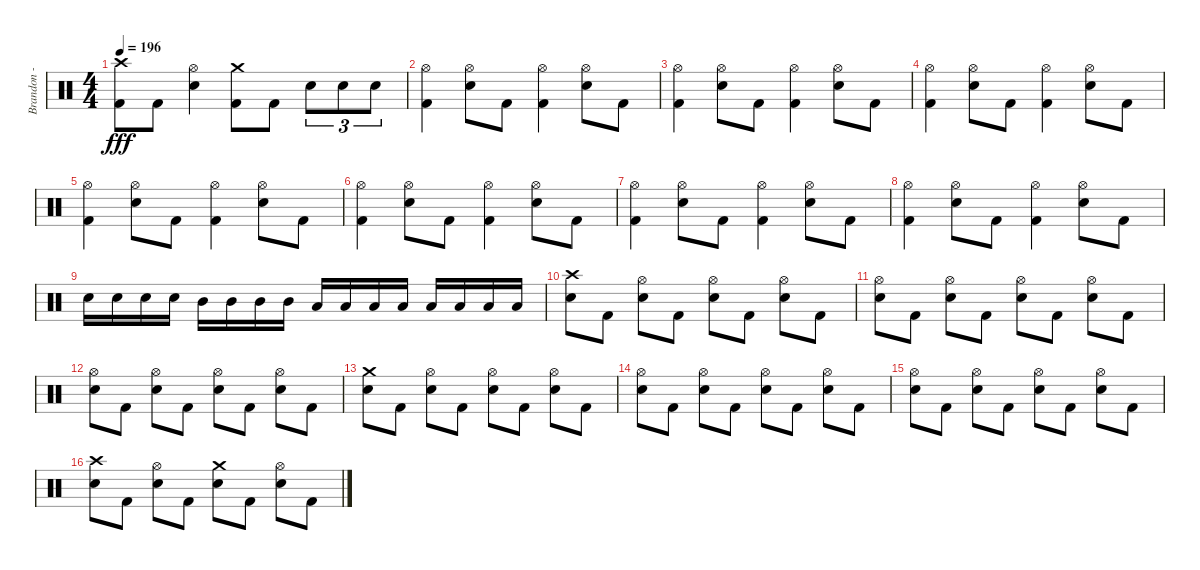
\track ("Brandon - Drums" "Brandon - ") {instrument percussion}
\staff {score}
\articulation defaults
\ts (4 4)
\tempo 196
\clef neutral
\ks c
("Crash high (hit)" "Kick (hit) 2").8{dy fff} "Kick (hit) 2".8 ("Hi-Hat (open)" "Snare (hit) 2").4 ("Crash medium (hit)" "Kick (hit) 2").8 "Kick (hit) 2".8 "Snare (hit) 2".8{tu (3 2)} "Snare (hit) 2".8{tu (3 2)} "Snare (hit) 2".8{tu (3 2)} |
("Hi-Hat (open)" "Kick (hit) 2").4 ("Hi-Hat (open)" "Snare (hit) 2").8 "Kick (hit) 2".8 ("Hi-Hat (open)" "Kick (hit) 2").4 ("Hi-Hat (open)" "Snare (hit) 2").8 "Kick (hit) 2".8 |
("Hi-Hat (open)" "Kick (hit) 2").4 ("Hi-Hat (open)" "Snare (hit) 2").8 "Kick (hit) 2".8 ("Hi-Hat (open)" "Kick (hit) 2").4 ("Hi-Hat (open)" "Snare (hit) 2").8 "Kick (hit) 2".8 |
("Hi-Hat (open)" "Kick (hit) 2").4 ("Hi-Hat (open)" "Snare (hit) 2").8 "Kick (hit) 2".8 ("Hi-Hat (open)" "Kick (hit) 2").4 ("Hi-Hat (open)" "Snare (hit) 2").8 "Kick (hit) 2".8 |
("Hi-Hat (open)" "Kick (hit) 2").4 ("Hi-Hat (open)" "Snare (hit) 2").8 "Kick (hit) 2".8 ("Hi-Hat (open)" "Kick (hit) 2").4 ("Hi-Hat (open)" "Snare (hit) 2").8 "Kick (hit) 2".8 |
("Hi-Hat (open)" "Kick (hit) 2").4 ("Hi-Hat (open)" "Snare (hit) 2").8 "Kick (hit) 2".8 ("Hi-Hat (open)" "Kick (hit) 2").4 ("Hi-Hat (open)" "Snare (hit) 2").8 "Kick (hit) 2".8 |
("Hi-Hat (open)" "Kick (hit) 2").4 ("Hi-Hat (open)" "Snare (hit) 2").8 "Kick (hit) 2".8 ("Hi-Hat (open)" "Kick (hit) 2").4 ("Hi-Hat (open)" "Snare (hit) 2").8 "Kick (hit) 2".8 |
("Hi-Hat (open)" "Kick (hit) 2").4 ("Hi-Hat (open)" "Snare (hit) 2").8 "Kick (hit) 2".8 ("Hi-Hat (open)" "Kick (hit) 2").4 ("Hi-Hat (open)" "Snare (hit) 2").8 "Kick (hit) 2".8 |
"Snare (hit) 2".16 "Snare (hit) 2".16 "Snare (hit) 2".16 "Snare (hit) 2".16 "Mid Tom (hit)".16 "Mid Tom (hit)".16 "Mid Tom (hit)".16 "Mid Tom (hit)".16 "Low Tom (hit)".16 "Low Tom (hit)".16 "Low Tom (hit)".16 "Low Tom (hit)".16 "Low Floor Tom (hit)".16 "Low Floor Tom (hit)".16 "Low Floor Tom (hit)".16 "Low Floor Tom (hit)".16 |
("Crash high (hit)" "Snare (hit) 2").8 "Kick (hit) 2".8 ("Hi-Hat (open)" "Snare (hit) 2").8 "Kick (hit) 2".8 ("Hi-Hat (open)" "Snare (hit) 2").8 "Kick (hit) 2".8 ("Hi-Hat (open)" "Snare (hit) 2").8 "Kick (hit) 2".8 |
("Hi-Hat (open)" "Snare (hit) 2").8 "Kick (hit) 2".8 ("Hi-Hat (open)" "Snare (hit) 2").8 "Kick (hit) 2".8 ("Hi-Hat (open)" "Snare (hit) 2").8 "Kick (hit) 2".8 ("Hi-Hat (open)" "Snare (hit) 2").8 "Kick (hit) 2".8 |
("Hi-Hat (open)" "Snare (hit) 2").8 "Kick (hit) 2".8 ("Hi-Hat (open)" "Snare (hit) 2").8 "Kick (hit) 2".8 ("Hi-Hat (open)" "Snare (hit) 2").8 "Kick (hit) 2".8 ("Hi-Hat (open)" "Snare (hit) 2").8 "Kick (hit) 2".8 |
("Crash medium (hit)" "Snare (hit) 2").8 "Kick (hit) 2".8 ("Hi-Hat (open)" "Snare (hit) 2").8 "Kick (hit) 2".8 ("Hi-Hat (open)" "Snare (hit) 2").8 "Kick (hit) 2".8 ("Hi-Hat (open)" "Snare (hit) 2").8 "Kick (hit) 2".8 |
("Hi-Hat (open)" "Snare (hit) 2").8 "Kick (hit) 2".8 ("Hi-Hat (open)" "Snare (hit) 2").8 "Kick (hit) 2".8 ("Hi-Hat (open)" "Snare (hit) 2").8 "Kick (hit) 2".8 ("Hi-Hat (open)" "Snare (hit) 2").8 "Kick (hit) 2".8 |
("Hi-Hat (open)" "Snare (hit) 2").8 "Kick (hit) 2".8 ("Hi-Hat (open)" "Snare (hit) 2").8 "Kick (hit) 2".8 ("Hi-Hat (open)" "Snare (hit) 2").8 "Kick (hit) 2".8 ("Hi-Hat (open)" "Snare (hit) 2").8 "Kick (hit) 2".8 |
("Crash high (hit)" "Snare (hit) 2").8 "Kick (hit) 2".8 ("Hi-Hat (open)" "Snare (hit) 2").8 "Kick (hit) 2".8 ("Crash medium (hit)" "Snare (hit) 2").8 "Kick (hit) 2".8 ("Hi-Hat (open)" "Snare (hit) 2").8 "Kick (hit) 2".8
